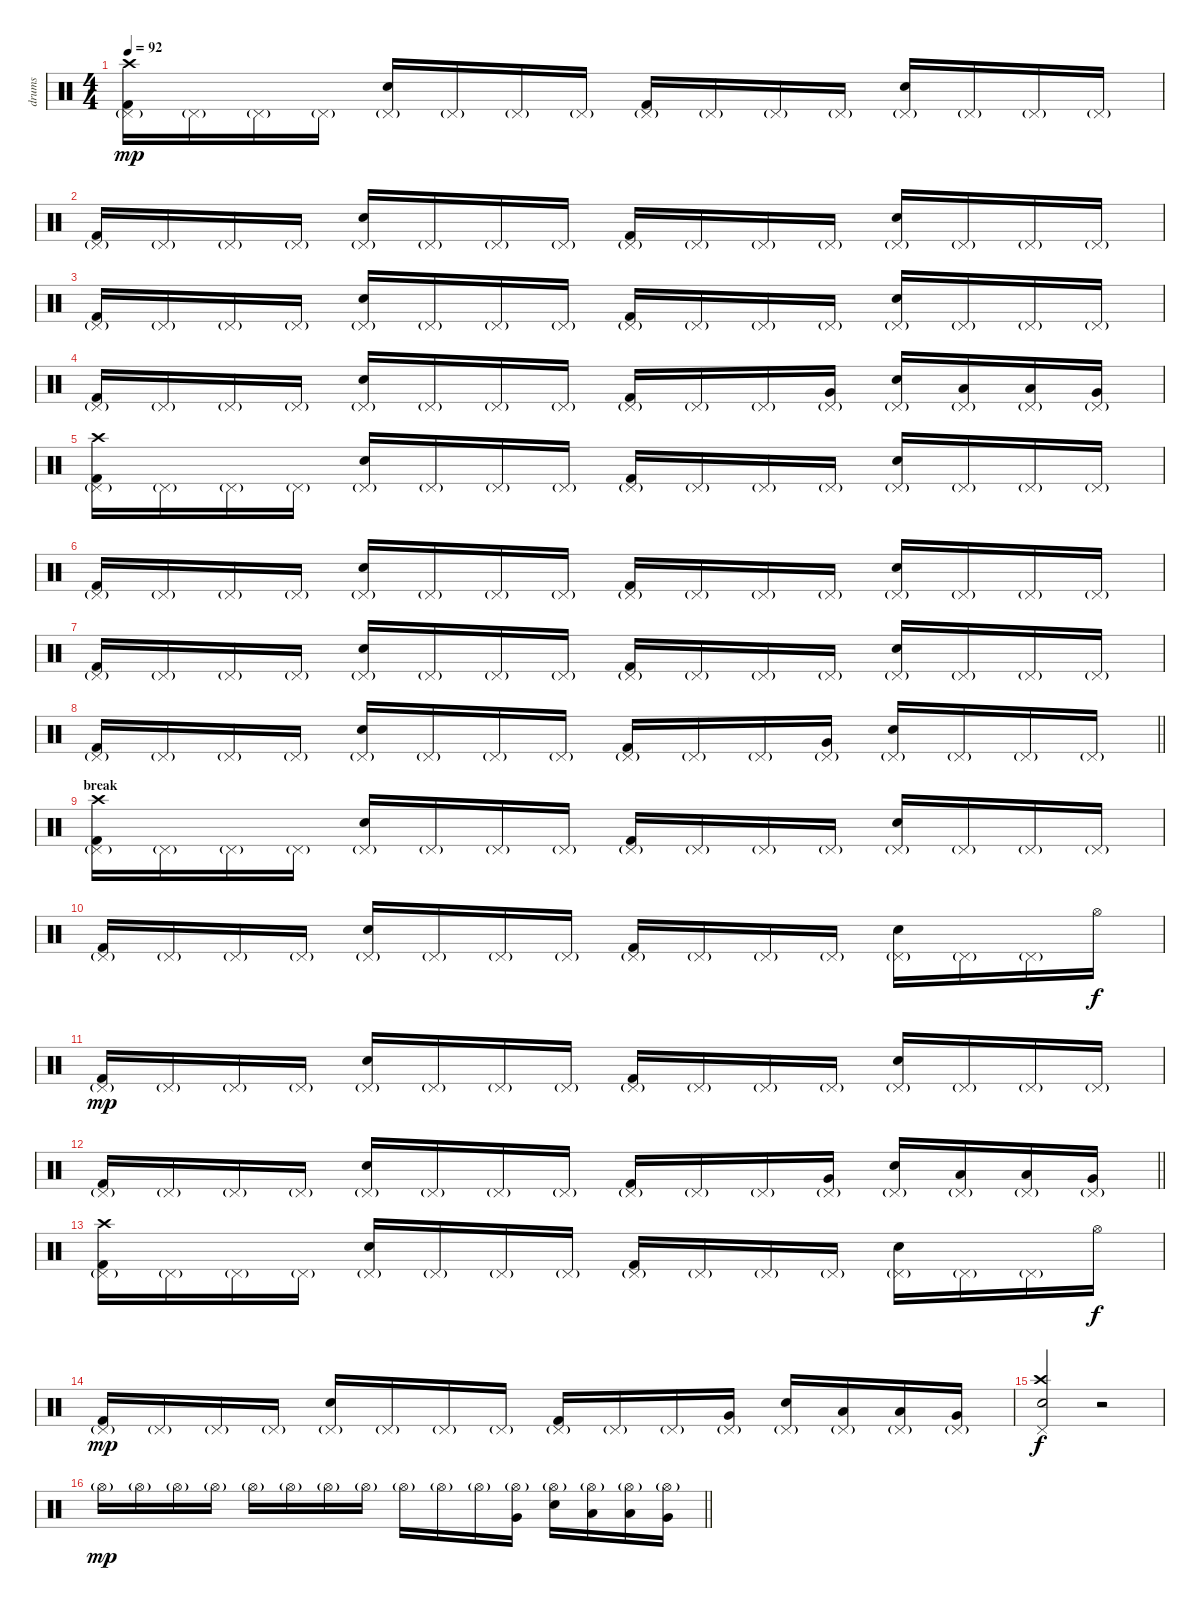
\track ("drums" "drums") {instrument percussion}
\staff {score}
\articulation defaults
\ts (4 4)
\tempo 92
\clef neutral
\ks c
("Kick (hit) 2" "Pedal Hi-Hat (hit)"{g} "Crash high (hit)").16{dy mp} "Pedal Hi-Hat (hit)"{g}.16 "Pedal Hi-Hat (hit)"{g}.16 "Pedal Hi-Hat (hit)"{g}.16 ("Electric Snare (hit)" "Pedal Hi-Hat (hit)"{g}).16 "Pedal Hi-Hat (hit)"{g}.16 "Pedal Hi-Hat (hit)"{g}.16 "Pedal Hi-Hat (hit)"{g}.16 ("Kick (hit) 2" "Pedal Hi-Hat (hit)"{g}).16 "Pedal Hi-Hat (hit)"{g}.16 "Pedal Hi-Hat (hit)"{g}.16 "Pedal Hi-Hat (hit)"{g}.16 ("Electric Snare (hit)" "Pedal Hi-Hat (hit)"{g}).16 "Pedal Hi-Hat (hit)"{g}.16 "Pedal Hi-Hat (hit)"{g}.16 "Pedal Hi-Hat (hit)"{g}.16 |
("Kick (hit) 2" "Pedal Hi-Hat (hit)"{g}).16 "Pedal Hi-Hat (hit)"{g}.16 "Pedal Hi-Hat (hit)"{g}.16 "Pedal Hi-Hat (hit)"{g}.16 ("Electric Snare (hit)" "Pedal Hi-Hat (hit)"{g}).16 "Pedal Hi-Hat (hit)"{g}.16 "Pedal Hi-Hat (hit)"{g}.16 "Pedal Hi-Hat (hit)"{g}.16 ("Kick (hit) 2" "Pedal Hi-Hat (hit)"{g}).16 "Pedal Hi-Hat (hit)"{g}.16 "Pedal Hi-Hat (hit)"{g}.16 "Pedal Hi-Hat (hit)"{g}.16 ("Electric Snare (hit)" "Pedal Hi-Hat (hit)"{g}).16 "Pedal Hi-Hat (hit)"{g}.16 "Pedal Hi-Hat (hit)"{g}.16 "Pedal Hi-Hat (hit)"{g}.16 |
("Kick (hit) 2" "Pedal Hi-Hat (hit)"{g}).16 "Pedal Hi-Hat (hit)"{g}.16 "Pedal Hi-Hat (hit)"{g}.16 "Pedal Hi-Hat (hit)"{g}.16 ("Electric Snare (hit)" "Pedal Hi-Hat (hit)"{g}).16 "Pedal Hi-Hat (hit)"{g}.16 "Pedal Hi-Hat (hit)"{g}.16 "Pedal Hi-Hat (hit)"{g}.16 ("Kick (hit) 2" "Pedal Hi-Hat (hit)"{g}).16 "Pedal Hi-Hat (hit)"{g}.16 "Pedal Hi-Hat (hit)"{g}.16 "Pedal Hi-Hat (hit)"{g}.16 ("Electric Snare (hit)" "Pedal Hi-Hat (hit)"{g}).16 "Pedal Hi-Hat (hit)"{g}.16 "Pedal Hi-Hat (hit)"{g}.16 "Pedal Hi-Hat (hit)"{g}.16 |
("Kick (hit) 2" "Pedal Hi-Hat (hit)"{g}).16 "Pedal Hi-Hat (hit)"{g}.16 "Pedal Hi-Hat (hit)"{g}.16 "Pedal Hi-Hat (hit)"{g}.16 ("Electric Snare (hit)" "Pedal Hi-Hat (hit)"{g}).16 "Pedal Hi-Hat (hit)"{g}.16 "Pedal Hi-Hat (hit)"{g}.16 "Pedal Hi-Hat (hit)"{g}.16 ("Kick (hit) 2" "Pedal Hi-Hat (hit)"{g}).16 "Pedal Hi-Hat (hit)"{g}.16 "Pedal Hi-Hat (hit)"{g}.16 ("Very Low Tom (hit)" "Pedal Hi-Hat (hit)"{g}).16 ("Electric Snare (hit)" "Pedal Hi-Hat (hit)"{g}).16 ("Low Floor Tom (hit)" "Pedal Hi-Hat (hit)"{g}).16 ("Low Floor Tom (hit)" "Pedal Hi-Hat (hit)"{g}).16 ("Very Low Tom (hit)" "Pedal Hi-Hat (hit)"{g}).16 |
("Kick (hit) 2" "Pedal Hi-Hat (hit)"{g} "Crash high (hit)").16 "Pedal Hi-Hat (hit)"{g}.16 "Pedal Hi-Hat (hit)"{g}.16 "Pedal Hi-Hat (hit)"{g}.16 ("Electric Snare (hit)" "Pedal Hi-Hat (hit)"{g}).16 "Pedal Hi-Hat (hit)"{g}.16 "Pedal Hi-Hat (hit)"{g}.16 "Pedal Hi-Hat (hit)"{g}.16 ("Kick (hit) 2" "Pedal Hi-Hat (hit)"{g}).16 "Pedal Hi-Hat (hit)"{g}.16 "Pedal Hi-Hat (hit)"{g}.16 "Pedal Hi-Hat (hit)"{g}.16 ("Electric Snare (hit)" "Pedal Hi-Hat (hit)"{g}).16 "Pedal Hi-Hat (hit)"{g}.16 "Pedal Hi-Hat (hit)"{g}.16 "Pedal Hi-Hat (hit)"{g}.16 |
("Kick (hit) 2" "Pedal Hi-Hat (hit)"{g}).16 "Pedal Hi-Hat (hit)"{g}.16 "Pedal Hi-Hat (hit)"{g}.16 "Pedal Hi-Hat (hit)"{g}.16 ("Electric Snare (hit)" "Pedal Hi-Hat (hit)"{g}).16 "Pedal Hi-Hat (hit)"{g}.16 "Pedal Hi-Hat (hit)"{g}.16 "Pedal Hi-Hat (hit)"{g}.16 ("Kick (hit) 2" "Pedal Hi-Hat (hit)"{g}).16 "Pedal Hi-Hat (hit)"{g}.16 "Pedal Hi-Hat (hit)"{g}.16 "Pedal Hi-Hat (hit)"{g}.16 ("Electric Snare (hit)" "Pedal Hi-Hat (hit)"{g}).16 "Pedal Hi-Hat (hit)"{g}.16 "Pedal Hi-Hat (hit)"{g}.16 "Pedal Hi-Hat (hit)"{g}.16 |
("Kick (hit) 2" "Pedal Hi-Hat (hit)"{g}).16 "Pedal Hi-Hat (hit)"{g}.16 "Pedal Hi-Hat (hit)"{g}.16 "Pedal Hi-Hat (hit)"{g}.16 ("Electric Snare (hit)" "Pedal Hi-Hat (hit)"{g}).16 "Pedal Hi-Hat (hit)"{g}.16 "Pedal Hi-Hat (hit)"{g}.16 "Pedal Hi-Hat (hit)"{g}.16 ("Kick (hit) 2" "Pedal Hi-Hat (hit)"{g}).16 "Pedal Hi-Hat (hit)"{g}.16 "Pedal Hi-Hat (hit)"{g}.16 "Pedal Hi-Hat (hit)"{g}.16 ("Electric Snare (hit)" "Pedal Hi-Hat (hit)"{g}).16 "Pedal Hi-Hat (hit)"{g}.16 "Pedal Hi-Hat (hit)"{g}.16 "Pedal Hi-Hat (hit)"{g}.16 |
\barLineRight lightlight
("Kick (hit) 2" "Pedal Hi-Hat (hit)"{g}).16 "Pedal Hi-Hat (hit)"{g}.16 "Pedal Hi-Hat (hit)"{g}.16 "Pedal Hi-Hat (hit)"{g}.16 ("Electric Snare (hit)" "Pedal Hi-Hat (hit)"{g}).16 "Pedal Hi-Hat (hit)"{g}.16 "Pedal Hi-Hat (hit)"{g}.16 "Pedal Hi-Hat (hit)"{g}.16 ("Kick (hit) 2" "Pedal Hi-Hat (hit)"{g}).16 "Pedal Hi-Hat (hit)"{g}.16 "Pedal Hi-Hat (hit)"{g}.16 ("Very Low Tom (hit)" "Pedal Hi-Hat (hit)"{g}).16 ("Electric Snare (hit)" "Pedal Hi-Hat (hit)"{g}).16 "Pedal Hi-Hat (hit)"{g}.16 "Pedal Hi-Hat (hit)"{g}.16 "Pedal Hi-Hat (hit)"{g}.16 |
\section ("" "break")
("Kick (hit) 2" "Pedal Hi-Hat (hit)"{g} "Crash high (hit)").16 "Pedal Hi-Hat (hit)"{g}.16 "Pedal Hi-Hat (hit)"{g}.16 "Pedal Hi-Hat (hit)"{g}.16 ("Electric Snare (hit)" "Pedal Hi-Hat (hit)"{g}).16 "Pedal Hi-Hat (hit)"{g}.16 "Pedal Hi-Hat (hit)"{g}.16 "Pedal Hi-Hat (hit)"{g}.16 ("Kick (hit) 2" "Pedal Hi-Hat (hit)"{g}).16 "Pedal Hi-Hat (hit)"{g}.16 "Pedal Hi-Hat (hit)"{g}.16 "Pedal Hi-Hat (hit)"{g}.16 ("Electric Snare (hit)" "Pedal Hi-Hat (hit)"{g}).16 "Pedal Hi-Hat (hit)"{g}.16 "Pedal Hi-Hat (hit)"{g}.16 "Pedal Hi-Hat (hit)"{g}.16 |
("Kick (hit) 2" "Pedal Hi-Hat (hit)"{g}).16 "Pedal Hi-Hat (hit)"{g}.16 "Pedal Hi-Hat (hit)"{g}.16 "Pedal Hi-Hat (hit)"{g}.16 ("Electric Snare (hit)" "Pedal Hi-Hat (hit)"{g}).16 "Pedal Hi-Hat (hit)"{g}.16 "Pedal Hi-Hat (hit)"{g}.16 "Pedal Hi-Hat (hit)"{g}.16 ("Kick (hit) 2" "Pedal Hi-Hat (hit)"{g}).16 "Pedal Hi-Hat (hit)"{g}.16 "Pedal Hi-Hat (hit)"{g}.16 "Pedal Hi-Hat (hit)"{g}.16 ("Electric Snare (hit)" "Pedal Hi-Hat (hit)"{g}).16 "Pedal Hi-Hat (hit)"{g}.16 "Pedal Hi-Hat (hit)"{g}.16 "Hi-Hat (open)".16{dy f} |
("Kick (hit) 2" "Pedal Hi-Hat (hit)"{g}).16{dy mp} "Pedal Hi-Hat (hit)"{g}.16 "Pedal Hi-Hat (hit)"{g}.16 "Pedal Hi-Hat (hit)"{g}.16 ("Electric Snare (hit)" "Pedal Hi-Hat (hit)"{g}).16 "Pedal Hi-Hat (hit)"{g}.16 "Pedal Hi-Hat (hit)"{g}.16 "Pedal Hi-Hat (hit)"{g}.16 ("Kick (hit) 2" "Pedal Hi-Hat (hit)"{g}).16 "Pedal Hi-Hat (hit)"{g}.16 "Pedal Hi-Hat (hit)"{g}.16 "Pedal Hi-Hat (hit)"{g}.16 ("Electric Snare (hit)" "Pedal Hi-Hat (hit)"{g}).16 "Pedal Hi-Hat (hit)"{g}.16 "Pedal Hi-Hat (hit)"{g}.16 "Pedal Hi-Hat (hit)"{g}.16 |
\barLineRight lightlight
("Kick (hit) 2" "Pedal Hi-Hat (hit)"{g}).16 "Pedal Hi-Hat (hit)"{g}.16 "Pedal Hi-Hat (hit)"{g}.16 "Pedal Hi-Hat (hit)"{g}.16 ("Electric Snare (hit)" "Pedal Hi-Hat (hit)"{g}).16 "Pedal Hi-Hat (hit)"{g}.16 "Pedal Hi-Hat (hit)"{g}.16 "Pedal Hi-Hat (hit)"{g}.16 ("Kick (hit) 2" "Pedal Hi-Hat (hit)"{g}).16 "Pedal Hi-Hat (hit)"{g}.16 "Pedal Hi-Hat (hit)"{g}.16 ("Very Low Tom (hit)" "Pedal Hi-Hat (hit)"{g}).16 ("Electric Snare (hit)" "Pedal Hi-Hat (hit)"{g}).16 ("Low Floor Tom (hit)" "Pedal Hi-Hat (hit)"{g}).16 ("Low Floor Tom (hit)" "Pedal Hi-Hat (hit)"{g}).16 ("Very Low Tom (hit)" "Pedal Hi-Hat (hit)"{g}).16 |
("Kick (hit) 2" "Pedal Hi-Hat (hit)"{g} "Crash high (hit)").16 "Pedal Hi-Hat (hit)"{g}.16 "Pedal Hi-Hat (hit)"{g}.16 "Pedal Hi-Hat (hit)"{g}.16 ("Electric Snare (hit)" "Pedal Hi-Hat (hit)"{g}).16 "Pedal Hi-Hat (hit)"{g}.16 "Pedal Hi-Hat (hit)"{g}.16 "Pedal Hi-Hat (hit)"{g}.16 ("Kick (hit) 2" "Pedal Hi-Hat (hit)"{g}).16 "Pedal Hi-Hat (hit)"{g}.16 "Pedal Hi-Hat (hit)"{g}.16 "Pedal Hi-Hat (hit)"{g}.16 ("Electric Snare (hit)" "Pedal Hi-Hat (hit)"{g}).16 "Pedal Hi-Hat (hit)"{g}.16 "Pedal Hi-Hat (hit)"{g}.16 "Hi-Hat (open)".16{dy f} |
("Kick (hit) 2" "Pedal Hi-Hat (hit)"{g}).16{dy mp} "Pedal Hi-Hat (hit)"{g}.16 "Pedal Hi-Hat (hit)"{g}.16 "Pedal Hi-Hat (hit)"{g}.16 ("Electric Snare (hit)" "Pedal Hi-Hat (hit)"{g}).16 "Pedal Hi-Hat (hit)"{g}.16 "Pedal Hi-Hat (hit)"{g}.16 "Pedal Hi-Hat (hit)"{g}.16 ("Kick (hit) 2" "Pedal Hi-Hat (hit)"{g}).16 "Pedal Hi-Hat (hit)"{g}.16 "Pedal Hi-Hat (hit)"{g}.16 ("Very Low Tom (hit)" "Pedal Hi-Hat (hit)"{g}).16 ("Electric Snare (hit)" "Pedal Hi-Hat (hit)"{g}).16 ("Low Floor Tom (hit)" "Pedal Hi-Hat (hit)"{g}).16 ("Low Floor Tom (hit)" "Pedal Hi-Hat (hit)"{g}).16 ("Very Low Tom (hit)" "Pedal Hi-Hat (hit)"{g}).16 |
("Electric Snare (hit)" "Pedal Hi-Hat (hit)" "Crash high (hit)").2{dy f} r.2{volume 0} |
\barLineRight lightlight "Hi-Hat (open)"{g}.16{dy mp volume 12} "Hi-Hat (open)"{g}.16 "Hi-Hat (open)"{g}.16 "Hi-Hat (open)"{g}.16 "Hi-Hat (open)"{g}.16 "Hi-Hat (open)"{g}.16 "Hi-Hat (open)"{g}.16 "Hi-Hat (open)"{g}.16 "Hi-Hat (open)"{g}.16 "Hi-Hat (open)"{g}.16 "Hi-Hat (open)"{g}.16
("Very Low Tom (hit)" "Hi-Hat (open)"{g}).16 ("Electric Snare (hit)" "Hi-Hat (open)"{g}).16 ("Low Floor Tom (hit)" "Hi-Hat (open)"{g}).16 ("Low Floor Tom (hit)" "Hi-Hat (open)"{g}).16 ("Very Low Tom (hit)" "Hi-Hat (open)"{g}).16
